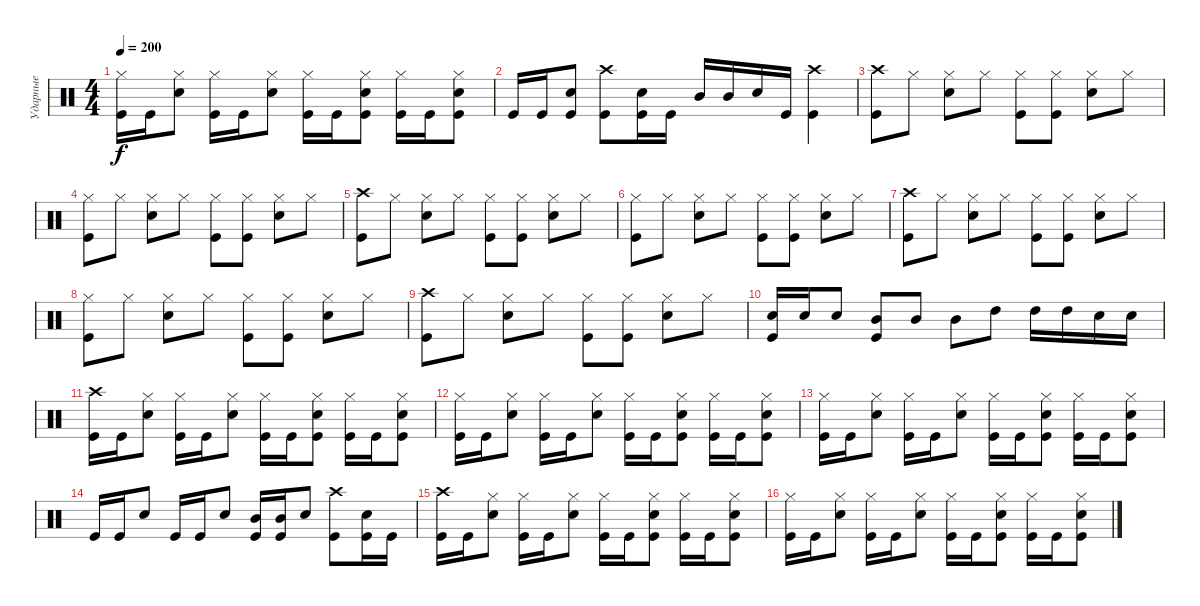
\track ("Ударные" "Ударные") {instrument percussion}
\staff {score}
\articulation defaults
\ts (4 4)
\tempo 200
\clef neutral
\ks c
("Hi-Hat (closed)" "Kick (hit)").16{dy f} "Kick (hit)".16 ("Hi-Hat (closed)" "Electric Snare (hit)").8 ("Hi-Hat (closed)" "Kick (hit)").16 "Kick (hit)".16 ("Hi-Hat (closed)" "Electric Snare (hit)").8 ("Hi-Hat (closed)" "Kick (hit)").16 "Kick (hit)".16 ("Hi-Hat (closed)" "Electric Snare (hit)" "Kick (hit)").8 ("Hi-Hat (closed)" "Kick (hit)").16 "Kick (hit)".16 ("Hi-Hat (closed)" "Electric Snare (hit)" "Kick (hit)").8 |
"Kick (hit)".16 "Kick (hit)".16 ("Electric Snare (hit)" "Kick (hit)").8 ("Crash high (hit)" "Kick (hit)").8 ("Electric Snare (hit)" "Kick (hit)").16 "Kick (hit)".16 "Mid Tom (hit)".16 "Mid Tom (hit)".16 "Electric Snare (hit)".16 "Kick (hit)".16 ("Crash high (hit)" "Kick (hit)").4 |
("Crash high (hit)" "Kick (hit)").8 "Hi-Hat (closed)".8 ("Hi-Hat (closed)" "Electric Snare (hit)").8 "Hi-Hat (closed)".8 ("Hi-Hat (closed)" "Kick (hit)").8 ("Hi-Hat (closed)" "Kick (hit)").8 ("Hi-Hat (closed)" "Electric Snare (hit)").8 "Hi-Hat (closed)".8 |
("Hi-Hat (closed)" "Kick (hit)").8 "Hi-Hat (closed)".8 ("Hi-Hat (closed)" "Electric Snare (hit)").8 "Hi-Hat (closed)".8 ("Hi-Hat (closed)" "Kick (hit)").8 ("Hi-Hat (closed)" "Kick (hit)").8 ("Hi-Hat (closed)" "Electric Snare (hit)").8 "Hi-Hat (closed)".8 |
("Crash high (hit)" "Kick (hit)").8 "Hi-Hat (closed)".8 ("Hi-Hat (closed)" "Electric Snare (hit)").8 "Hi-Hat (closed)".8 ("Hi-Hat (closed)" "Kick (hit)").8 ("Hi-Hat (closed)" "Kick (hit)").8 ("Hi-Hat (closed)" "Electric Snare (hit)").8 "Hi-Hat (closed)".8 |
("Hi-Hat (closed)" "Kick (hit)").8 "Hi-Hat (closed)".8 ("Hi-Hat (closed)" "Electric Snare (hit)").8 "Hi-Hat (closed)".8 ("Hi-Hat (closed)" "Kick (hit)").8 ("Hi-Hat (closed)" "Kick (hit)").8 ("Hi-Hat (closed)" "Electric Snare (hit)").8 "Hi-Hat (closed)".8 |
("Crash high (hit)" "Kick (hit)").8 "Hi-Hat (closed)".8 ("Hi-Hat (closed)" "Electric Snare (hit)").8 "Hi-Hat (closed)".8 ("Hi-Hat (closed)" "Kick (hit)").8 ("Hi-Hat (closed)" "Kick (hit)").8 ("Hi-Hat (closed)" "Electric Snare (hit)").8 "Hi-Hat (closed)".8 |
("Hi-Hat (closed)" "Kick (hit)").8 "Hi-Hat (closed)".8 ("Hi-Hat (closed)" "Electric Snare (hit)").8 "Hi-Hat (closed)".8 ("Hi-Hat (closed)" "Kick (hit)").8 ("Hi-Hat (closed)" "Kick (hit)").8 ("Hi-Hat (closed)" "Electric Snare (hit)").8 "Hi-Hat (closed)".8 |
("Crash high (hit)" "Kick (hit)").8 "Hi-Hat (closed)".8 ("Hi-Hat (closed)" "Electric Snare (hit)").8 "Hi-Hat (closed)".8 ("Hi-Hat (closed)" "Kick (hit)").8 ("Hi-Hat (closed)" "Kick (hit)").8 ("Hi-Hat (closed)" "Electric Snare (hit)").8 "Hi-Hat (closed)".8 |
("Electric Snare (hit)" "Kick (hit)").16 "Electric Snare (hit)".16 "Electric Snare (hit)".8 ("Mid Tom (hit)" "Kick (hit)").8 "Mid Tom (hit)".8 "Mid Tom (hit)".8 "High Tom (hit)".8 "High Tom (hit)".16 "High Tom (hit)".16 "Electric Snare (hit)".16 "Electric Snare (hit)".16 |
("Crash high (hit)" "Kick (hit)").16 "Kick (hit)".16 ("Hi-Hat (closed)" "Electric Snare (hit)").8 ("Hi-Hat (closed)" "Kick (hit)").16 "Kick (hit)".16 ("Hi-Hat (closed)" "Electric Snare (hit)").8 ("Hi-Hat (closed)" "Kick (hit)").16 "Kick (hit)".16 ("Hi-Hat (closed)" "Electric Snare (hit)" "Kick (hit)").8 ("Hi-Hat (closed)" "Kick (hit)").16 "Kick (hit)".16 ("Hi-Hat (closed)" "Electric Snare (hit)" "Kick (hit)").8 |
("Hi-Hat (closed)" "Kick (hit)").16 "Kick (hit)".16 ("Hi-Hat (closed)" "Electric Snare (hit)").8 ("Hi-Hat (closed)" "Kick (hit)").16 "Kick (hit)".16 ("Hi-Hat (closed)" "Electric Snare (hit)").8 ("Hi-Hat (closed)" "Kick (hit)").16 "Kick (hit)".16 ("Hi-Hat (closed)" "Electric Snare (hit)" "Kick (hit)").8 ("Hi-Hat (closed)" "Kick (hit)").16 "Kick (hit)".16 ("Hi-Hat (closed)" "Electric Snare (hit)" "Kick (hit)").8 |
("Hi-Hat (closed)" "Kick (hit)").16 "Kick (hit)".16 ("Hi-Hat (closed)" "Electric Snare (hit)").8 ("Hi-Hat (closed)" "Kick (hit)").16 "Kick (hit)".16 ("Hi-Hat (closed)" "Electric Snare (hit)").8 ("Hi-Hat (closed)" "Kick (hit)").16 "Kick (hit)".16 ("Hi-Hat (closed)" "Electric Snare (hit)" "Kick (hit)").8 ("Hi-Hat (closed)" "Kick (hit)").16 "Kick (hit)".16 ("Hi-Hat (closed)" "Electric Snare (hit)" "Kick (hit)").8 |
"Kick (hit)".16 "Kick (hit)".16 "Electric Snare (hit)".8 "Kick (hit)".16 "Kick (hit)".16 "Electric Snare (hit)".8 ("Mid Tom (hit)" "Kick (hit)").16 ("Mid Tom (hit)" "Kick (hit)").16 "Electric Snare (hit)".8 ("Crash high (hit)" "Kick (hit)").8 ("Electric Snare (hit)" "Kick (hit)").16 "Kick (hit)".16 |
("Crash high (hit)" "Kick (hit)").16 "Kick (hit)".16 ("Hi-Hat (closed)" "Electric Snare (hit)").8 ("Hi-Hat (closed)" "Kick (hit)").16 "Kick (hit)".16 ("Hi-Hat (closed)" "Electric Snare (hit)").8 ("Hi-Hat (closed)" "Kick (hit)").16 "Kick (hit)".16 ("Hi-Hat (closed)" "Electric Snare (hit)" "Kick (hit)").8 ("Hi-Hat (closed)" "Kick (hit)").16 "Kick (hit)".16 ("Hi-Hat (closed)" "Electric Snare (hit)" "Kick (hit)").8 |
("Hi-Hat (closed)" "Kick (hit)").16 "Kick (hit)".16 ("Hi-Hat (closed)" "Electric Snare (hit)").8 ("Hi-Hat (closed)" "Kick (hit)").16 "Kick (hit)".16 ("Hi-Hat (closed)" "Electric Snare (hit)").8 ("Hi-Hat (closed)" "Kick (hit)").16 "Kick (hit)".16 ("Hi-Hat (closed)" "Electric Snare (hit)" "Kick (hit)").8 ("Hi-Hat (closed)" "Kick (hit)").16 "Kick (hit)".16 ("Hi-Hat (closed)" "Electric Snare (hit)" "Kick (hit)").8
